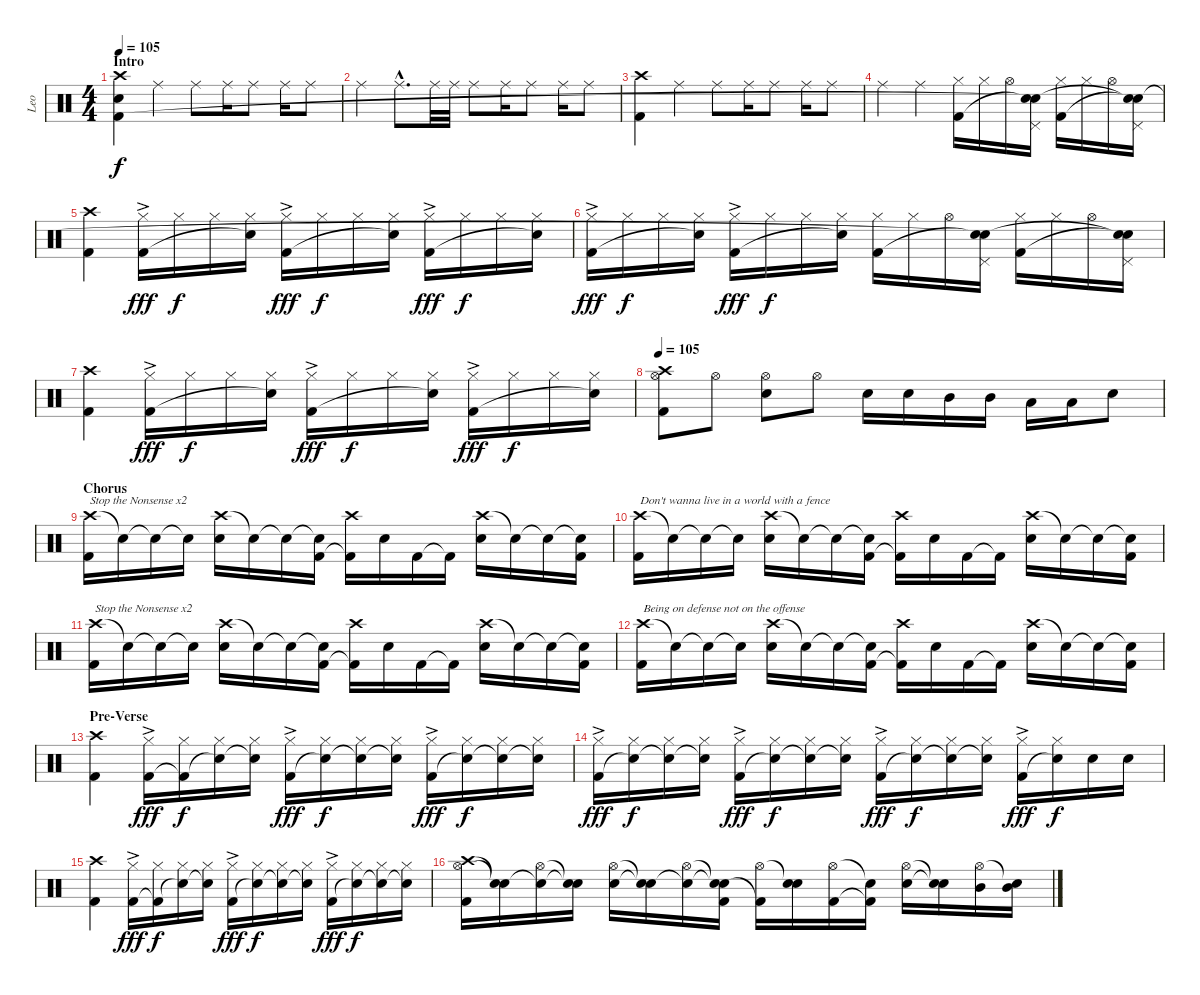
\track ("Leo" "Leo") {instrument percussion}
\staff {score}
\articulation defaults
\ts (4 4)
\section ("" "Intro")
\tempo 105
\tempo 100
\tempo 105
\clef neutral
\ks c
("Crash high (hit)" "Snare (hit)" "Kick (hit) 2").4{dy f} "Ride (middle)".4 "Ride (middle)".8 "Ride (middle)".16 "Ride (middle)".8 "Ride (middle)".16 "Ride (middle)".8 |
"Ride (middle)".4 "Ride (middle)"{hac}.8{d} "Ride (middle)".32 "Ride (middle)".32 "Ride (middle)".8 "Ride (middle)".16 "Ride (middle)".8 "Ride (middle)".16 "Ride (middle)".8 |
("Crash high (hit)" "Kick (hit) 2").4 "Ride (middle)".4 "Ride (middle)".8 "Ride (middle)".16 "Ride (middle)".8 "Ride (middle)".16 "Ride (middle)".8 |
"Ride (middle)".4 "Ride (middle)".4 ("Hi-Hat (closed)" "Kick (hit) 2").16 "Hi-Hat (closed)".16 "Hi-Hat (open)".16 ("Pedal Hi-Hat (hit)" "Snare (hit)"{t} "Snare (hit)"{t}).16 ("Hi-Hat (closed)" "Kick (hit) 2").16 "Hi-Hat (closed)".16 "Hi-Hat (open)".16 ("Pedal Hi-Hat (hit)" "Snare (hit)"{t} "Snare (hit)"{t}).16 |
("Crash high (hit)" "Kick (hit) 2").4 ("Hi-Hat (closed)"{ac} "Kick (hit) 2").16{dy fff} "Hi-Hat (closed)".16{dy f} "Hi-Hat (closed)".16 ("Hi-Hat (closed)" "Snare (hit)"{t}).16 ("Hi-Hat (closed)"{ac} "Kick (hit) 2").16{dy fff} "Hi-Hat (closed)".16{dy f} "Hi-Hat (closed)".16 ("Hi-Hat (closed)" "Snare (hit)"{t}).16 ("Hi-Hat (closed)"{ac} "Kick (hit) 2").16{dy fff} "Hi-Hat (closed)".16{dy f} "Hi-Hat (closed)".16 ("Hi-Hat (closed)" "Snare (hit)"{t}).16 |
("Hi-Hat (closed)"{ac} "Kick (hit) 2").16{dy fff} "Hi-Hat (closed)".16{dy f} "Hi-Hat (closed)".16 ("Hi-Hat (closed)" "Snare (hit)"{t}).16 ("Hi-Hat (closed)"{ac} "Kick (hit) 2").16{dy fff} "Hi-Hat (closed)".16{dy f} "Hi-Hat (closed)".16 ("Hi-Hat (closed)" "Snare (hit)"{t}).16 ("Hi-Hat (closed)" "Kick (hit) 2").16 "Hi-Hat (closed)".16 "Hi-Hat (open)".16 ("Pedal Hi-Hat (hit)" "Snare (hit)"{t} "Snare (hit)"{t}).16 ("Hi-Hat (closed)" "Kick (hit) 2").16 "Hi-Hat (closed)".16 "Hi-Hat (open)".16 ("Pedal Hi-Hat (hit)" "Snare (hit)"{t} "Snare (hit)"{t}).16 |
("Crash high (hit)" "Kick (hit) 2").4 ("Hi-Hat (closed)"{ac} "Kick (hit) 2").16{dy fff} "Hi-Hat (closed)".16{dy f} "Hi-Hat (closed)".16 ("Hi-Hat (closed)" "Snare (hit)"{t}).16 ("Hi-Hat (closed)"{ac} "Kick (hit) 2").16{dy fff} "Hi-Hat (closed)".16{dy f} "Hi-Hat (closed)".16 ("Hi-Hat (closed)" "Snare (hit)"{t}).16 ("Hi-Hat (closed)"{ac} "Kick (hit) 2").16{dy fff} "Hi-Hat (closed)".16{dy f} "Hi-Hat (closed)".16 ("Hi-Hat (closed)" "Snare (hit)"{t}).16 |
\tempo 105
("Hi-Hat (open)" "Crash high (hit)" "Kick (hit) 2").8 "Hi-Hat (open)".8 ("Hi-Hat (open)" "Snare (hit) 2").8 "Hi-Hat (open)".8 "Snare (hit) 2".16 "Snare (hit) 2".16 "Mid Tom (hit)".16 "Mid Tom (hit)".16 "Low Floor Tom (hit)".16 "Low Floor Tom (hit)".16 "Snare (hit) 2".8 |
\section ("" "Chorus")
("Crash high (hit)" "Kick (hit) 2").16{txt "Stop the Nonsense x2"} "Snare (hit)"{t}.16 "Snare (hit)"{t}.16 "Snare (hit)"{t}.16 ("Crash high (hit)" "Snare (hit) 2").16 "Snare (hit)"{t}.16 "Snare (hit)"{t}.16 ("Snare (hit)"{t} "Kick (hit) 2").16 ("Crash high (hit)" "Kick (hit) 2"{t}).16 "Snare (hit) 2".16 "Kick (hit) 2".16 "Kick (hit) 2"{t}.16 ("Crash high (hit)" "Snare (hit) 2").16 "Snare (hit) 2"{t}.16 "Snare (hit)"{t}.16 ("Snare (hit)"{t} "Kick (hit) 2").16 |
("Crash high (hit)" "Kick (hit) 2").16{txt "Don't wanna live in a world with a fence"} "Snare (hit)"{t}.16 "Snare (hit)"{t}.16 "Snare (hit)"{t}.16 ("Crash high (hit)" "Snare (hit) 2").16 "Snare (hit)"{t}.16 "Snare (hit)"{t}.16 ("Snare (hit)"{t} "Kick (hit) 2").16 ("Crash high (hit)" "Kick (hit) 2"{t}).16 "Snare (hit) 2".16 "Kick (hit) 2".16 "Kick (hit) 2"{t}.16 ("Crash high (hit)" "Snare (hit) 2").16 "Snare (hit) 2"{t}.16 "Snare (hit)"{t}.16 ("Snare (hit)"{t} "Kick (hit) 2").16 |
("Crash high (hit)" "Kick (hit) 2").16{txt "Stop the Nonsense x2"} "Snare (hit)"{t}.16 "Snare (hit)"{t}.16 "Snare (hit)"{t}.16 ("Crash high (hit)" "Snare (hit) 2").16 "Snare (hit)"{t}.16 "Snare (hit)"{t}.16 ("Snare (hit)"{t} "Kick (hit) 2").16 ("Crash high (hit)" "Kick (hit) 2"{t}).16 "Snare (hit) 2".16 "Kick (hit) 2".16 "Kick (hit) 2"{t}.16 ("Crash high (hit)" "Snare (hit) 2").16 "Snare (hit) 2"{t}.16 "Snare (hit)"{t}.16 ("Snare (hit)"{t} "Kick (hit) 2").16 |
("Crash high (hit)" "Kick (hit) 2").16{txt "Being on defense not on the offense"} "Snare (hit)"{t}.16 "Snare (hit)"{t}.16 "Snare (hit)"{t}.16 ("Crash high (hit)" "Snare (hit) 2").16 "Snare (hit)"{t}.16 "Snare (hit)"{t}.16 ("Snare (hit)"{t} "Kick (hit) 2").16 ("Crash high (hit)" "Kick (hit) 2"{t}).16 "Snare (hit) 2".16 "Kick (hit) 2".16 "Kick (hit) 2"{t}.16 ("Crash high (hit)" "Snare (hit) 2").16 "Snare (hit) 2"{t}.16 "Snare (hit)"{t}.16 ("Snare (hit)"{t} "Kick (hit) 2").16 |
\section ("" "Pre-Verse")
("Crash high (hit)" "Kick (hit) 2").4 ("Hi-Hat (closed)"{ac} "Kick (hit) 2").16{dy fff} ("Hi-Hat (closed)" "Kick (hit) 2"{t}).16{dy f} ("Hi-Hat (closed)" "Snare (hit)"{t}).16 ("Hi-Hat (closed)" "Snare (hit)"{t}).16 ("Hi-Hat (closed)"{ac} "Kick (hit) 2").16{dy fff} ("Hi-Hat (closed)" "Snare (hit)"{t}).16{dy f} ("Hi-Hat (closed)" "Snare (hit)"{t}).16 ("Hi-Hat (closed)" "Snare (hit)"{t}).16 ("Hi-Hat (closed)"{ac} "Kick (hit) 2").16{dy fff} ("Hi-Hat (closed)" "Snare (hit)"{t}).16{dy f} ("Hi-Hat (closed)" "Snare (hit)"{t}).16 ("Hi-Hat (closed)" "Snare (hit)"{t}).16 |
("Hi-Hat (closed)"{ac} "Kick (hit) 2").16{dy fff} ("Hi-Hat (closed)" "Snare (hit)"{t}).16{dy f} ("Hi-Hat (closed)" "Snare (hit)"{t}).16 ("Hi-Hat (closed)" "Snare (hit)"{t}).16 ("Hi-Hat (closed)"{ac} "Kick (hit) 2").16{dy fff} ("Hi-Hat (closed)" "Snare (hit)"{t}).16{dy f} ("Hi-Hat (closed)" "Snare (hit)"{t}).16 ("Hi-Hat (closed)" "Snare (hit)"{t}).16 ("Hi-Hat (closed)"{ac} "Kick (hit) 2").16{dy fff} ("Hi-Hat (closed)" "Snare (hit)"{t}).16{dy f} ("Hi-Hat (closed)" "Snare (hit)"{t}).16 ("Hi-Hat (closed)" "Snare (hit)"{t}).16 ("Hi-Hat (closed)"{ac} "Kick (hit) 2").16{dy fff} ("Hi-Hat (closed)" "Snare (hit)"{t}).16{dy f} "Snare (hit) 2".16 "Snare (hit) 2".16 |
("Crash high (hit)" "Kick (hit) 2").4 ("Hi-Hat (closed)"{ac} "Kick (hit) 2").16{dy fff} ("Hi-Hat (closed)" "Kick (hit) 2"{t}).16{dy f} ("Hi-Hat (closed)" "Snare (hit)"{t}).16 ("Hi-Hat (closed)" "Snare (hit)"{t}).16 ("Hi-Hat (closed)"{ac} "Kick (hit) 2").16{dy fff} ("Hi-Hat (closed)" "Snare (hit)"{t}).16{dy f} ("Hi-Hat (closed)" "Snare (hit)"{t}).16 ("Hi-Hat (closed)" "Snare (hit)"{t}).16 ("Hi-Hat (closed)"{ac} "Kick (hit) 2").16{dy fff} ("Hi-Hat (closed)" "Snare (hit)"{t}).16{dy f} ("Hi-Hat (closed)" "Snare (hit)"{t}).16 ("Hi-Hat (closed)" "Snare (hit)"{t}).16 |
("Hi-Hat (open)" "Crash high (hit)" "Kick (hit) 2").16 ("Snare (hit)"{t} "Snare (hit)"{t}).16 ("Hi-Hat (open)" "Snare (hit)"{t}).16 ("Snare (hit)"{t} "Snare (hit)"{t}).16 ("Hi-Hat (open)" "Snare (hit) 2").16 ("Snare (hit)"{t} "Snare (hit)"{t}).16 ("Hi-Hat (open)" "Snare (hit)"{t}).16 ("Snare (hit)"{t} "Snare (hit)"{t} "Kick (hit) 2").16 ("Hi-Hat (open)" "Kick (hit) 2"{t}).16 ("Snare (hit)"{t} "Snare (hit) 2").16 ("Hi-Hat (open)" "Kick (hit) 2").16 ("Snare (hit)"{t} "Kick (hit) 2"{t}).16 ("Hi-Hat (open)" "Snare (hit) 2").16 ("Snare (hit)"{t} "Snare (hit) 2"{t}).16 ("Hi-Hat (open)" "Mid Tom (hit)").16 ("Snare (hit)"{t} "Mid Tom (hit)").16
